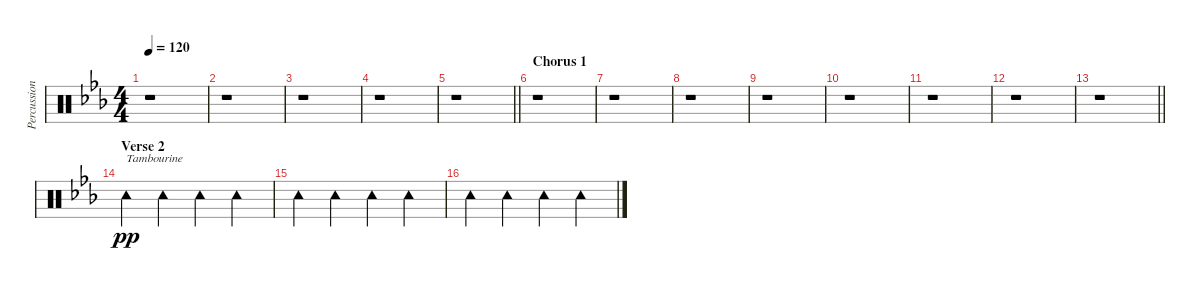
\track ("Percussion" "Percussion") {instrument percussion}
\staff {score}
\articulation defaults
\ts (4 4)
\tempo 120
\clef neutral
\ks cminor
r.1{dy pp} |
r.1 |
r.1 |
r.1 |
\barLineRight lightlight
r.1 |
\section ("" "Chorus 1")
r.1 |
r.1 |
r.1 |
r.1 |
r.1 |
r.1 |
r.1 |
\barLineRight lightlight
r.1 |
\section ("" "Verse 2")
"Tambourine (hit)".4{txt "Tambourine"} "Tambourine (hit)".4 "Tambourine (hit)".4 "Tambourine (hit)".4 |
"Tambourine (hit)".4 "Tambourine (hit)".4 "Tambourine (hit)".4 "Tambourine (hit)".4 |
"Tambourine (hit)".4 "Tambourine (hit)".4 "Tambourine (hit)".4 "Tambourine (hit)".4
